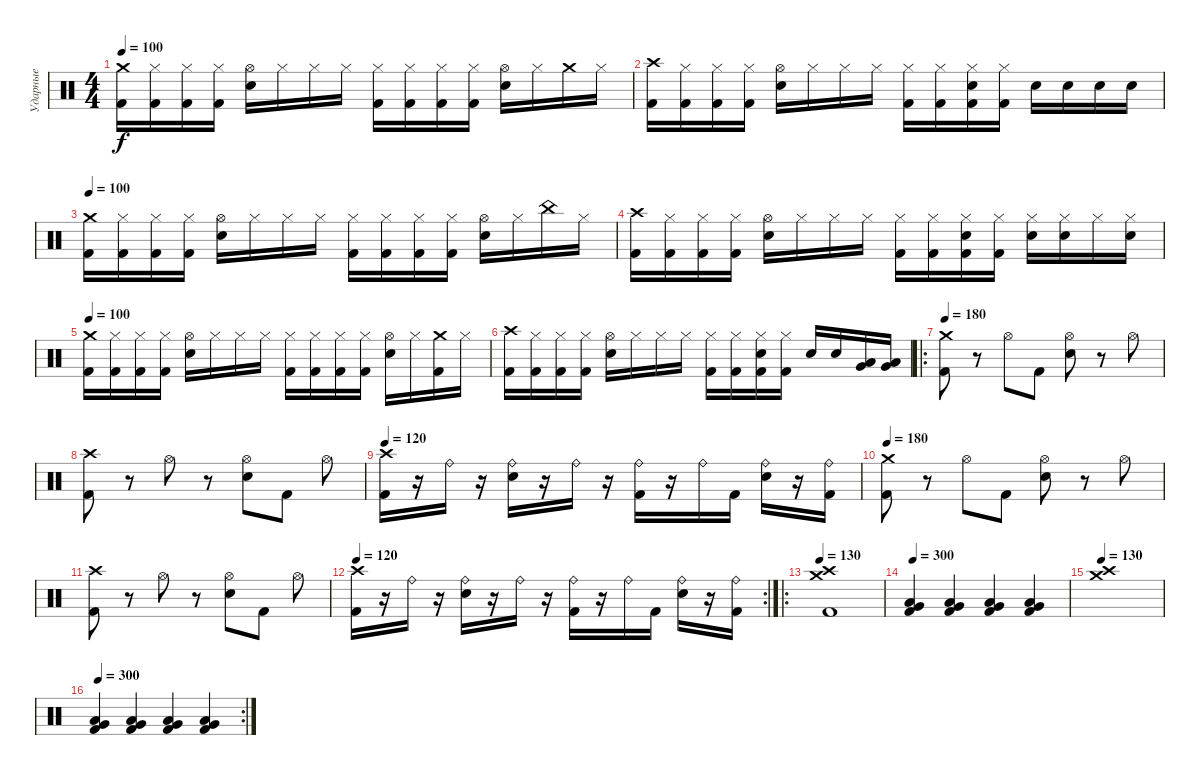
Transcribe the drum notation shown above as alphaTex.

\track ("Ударные" "Ударные") {instrument percussion}
\staff {score}
\articulation defaults
\ts (4 4)
\tempo 100
\clef neutral
\ks c
("Crash medium (hit)" "Kick (hit) 2").16{dy f} ("Hi-Hat (closed)" "Kick (hit) 2").16 ("Hi-Hat (closed)" "Kick (hit) 2").16 ("Hi-Hat (closed)" "Kick (hit) 2").16 ("Hi-Hat (open)" "Snare (hit) 2").16 "Hi-Hat (closed)".16 "Hi-Hat (closed)".16 "Hi-Hat (closed)".16 ("Hi-Hat (closed)" "Kick (hit) 2").16 ("Hi-Hat (closed)" "Kick (hit) 2").16 ("Hi-Hat (closed)" "Kick (hit) 2").16 ("Hi-Hat (closed)" "Kick (hit) 2").16 ("Hi-Hat (open)" "Snare (hit) 2").16 "Hi-Hat (closed)".16 "Crash medium (hit)".16 "Hi-Hat (closed)".16 |
("Crash high (hit)" "Kick (hit) 2").16 ("Hi-Hat (closed)" "Kick (hit) 2").16 ("Hi-Hat (closed)" "Kick (hit) 2").16 ("Hi-Hat (closed)" "Kick (hit) 2").16 ("Hi-Hat (open)" "Snare (hit) 2").16 "Hi-Hat (closed)".16 "Hi-Hat (closed)".16 "Hi-Hat (closed)".16 ("Hi-Hat (closed)" "Kick (hit) 2").16 ("Hi-Hat (closed)" "Kick (hit) 2").16 ("Hi-Hat (closed)" "Snare (hit) 2" "Kick (hit) 2").16 ("Hi-Hat (closed)" "Kick (hit) 2").16 "Snare (hit) 2".16 "Snare (hit) 2".16 "Snare (hit) 2".16 "Snare (hit) 2".16 |
\tempo 100
("Crash medium (hit)" "Kick (hit) 2").16 ("Hi-Hat (closed)" "Kick (hit) 2").16 ("Hi-Hat (closed)" "Kick (hit) 2").16 ("Hi-Hat (closed)" "Kick (hit) 2").16 ("Hi-Hat (open)" "Snare (hit) 2").16 "Hi-Hat (closed)".16 "Hi-Hat (closed)".16 "Hi-Hat (closed)".16 ("Hi-Hat (closed)" "Kick (hit) 2").16 ("Hi-Hat (closed)" "Kick (hit) 2").16 ("Hi-Hat (closed)" "Kick (hit) 2").16 ("Hi-Hat (closed)" "Kick (hit) 2").16 ("Hi-Hat (open)" "Snare (hit) 2").16 "Hi-Hat (closed)".16 "China (hit)".16 "Hi-Hat (closed)".16 |
("Crash high (hit)" "Kick (hit) 2").16 ("Hi-Hat (closed)" "Kick (hit) 2").16 ("Hi-Hat (closed)" "Kick (hit) 2").16 ("Hi-Hat (closed)" "Kick (hit) 2").16 ("Hi-Hat (open)" "Snare (hit) 2").16 "Hi-Hat (closed)".16 "Hi-Hat (closed)".16 "Hi-Hat (closed)".16 ("Hi-Hat (closed)" "Kick (hit) 2").16 ("Hi-Hat (closed)" "Kick (hit) 2").16 ("Hi-Hat (closed)" "Snare (hit) 2" "Kick (hit) 2").16 ("Hi-Hat (closed)" "Kick (hit) 2").16 ("Hi-Hat (closed)" "Snare (hit) 2").16 ("Hi-Hat (closed)" "Snare (hit) 2").16 "Hi-Hat (closed)".16 ("Hi-Hat (closed)" "Snare (hit) 2").16 |
\tempo 100
("Crash medium (hit)" "Kick (hit) 2").16 ("Hi-Hat (closed)" "Kick (hit) 2").16 ("Hi-Hat (closed)" "Kick (hit) 2").16 ("Hi-Hat (closed)" "Kick (hit) 2").16 ("Hi-Hat (open)" "Snare (hit) 2").16 "Hi-Hat (closed)".16 "Hi-Hat (closed)".16 "Hi-Hat (closed)".16 ("Hi-Hat (closed)" "Kick (hit) 2").16 ("Hi-Hat (closed)" "Kick (hit) 2").16 ("Hi-Hat (closed)" "Kick (hit) 2").16 ("Hi-Hat (closed)" "Kick (hit) 2").16 ("Hi-Hat (open)" "Snare (hit) 2").16 "Hi-Hat (closed)".16 ("Crash medium (hit)" "Kick (hit) 2").16 "Hi-Hat (closed)".16 |
("Crash high (hit)" "Kick (hit) 2").16 ("Hi-Hat (closed)" "Kick (hit) 2").16 ("Hi-Hat (closed)" "Kick (hit) 2").16 ("Hi-Hat (closed)" "Kick (hit) 2").16 ("Hi-Hat (open)" "Snare (hit) 2").16 "Hi-Hat (closed)".16 "Hi-Hat (closed)".16 "Hi-Hat (closed)".16 ("Hi-Hat (closed)" "Kick (hit) 2").16 ("Hi-Hat (closed)" "Kick (hit) 2").16 ("Hi-Hat (closed)" "Snare (hit) 2" "Kick (hit) 2").16 ("Hi-Hat (closed)" "Kick (hit) 2").16 "Snare (hit) 2".16 "Snare (hit) 2".16 ("Low Tom (hit)" "Very Low Tom (hit)").16 ("Low Tom (hit)" "Very Low Tom (hit)").16 |
\ro
\tempo 180
("Crash medium (hit)" "Kick (hit) 2").8 r.8 "Hi-Hat (open)".8 "Kick (hit) 2".8 ("Hi-Hat (open)" "Electric Snare (hit)").8 r.8 "Hi-Hat (open)".8 |
("Crash high (hit)" "Kick (hit) 2").8 r.8 "Hi-Hat (open)".8 r.8 ("Hi-Hat (open)" "Electric Snare (hit)").8 "Kick (hit) 2".8 "Hi-Hat (open)".8 |
\tempo 120
("Crash high (hit)" "Kick (hit) 2").16 r.16 "Ride (bell)".16 r.16 ("Ride (bell)" "Snare (hit) 2").16 r.16 "Ride (bell)".16 r.16 ("Ride (bell)" "Kick (hit) 2").16 r.16 "Ride (bell)".16 "Kick (hit) 2".16 ("Ride (bell)" "Snare (hit) 2").16 r.16 ("Ride (bell)" "Kick (hit) 2").16 |
\tempo 180
("Crash medium (hit)" "Kick (hit) 2").8 r.8 "Hi-Hat (open)".8 "Kick (hit) 2".8 ("Hi-Hat (open)" "Electric Snare (hit)").8 r.8 "Hi-Hat (open)".8 |
("Crash high (hit)" "Kick (hit) 2").8 r.8 "Hi-Hat (open)".8 r.8 ("Hi-Hat (open)" "Electric Snare (hit)").8 "Kick (hit) 2".8 "Hi-Hat (open)".8 |
\rc 2
\tempo 120
("Crash high (hit)" "Kick (hit) 2").16 r.16 "Ride (bell)".16 r.16 ("Ride (bell)" "Snare (hit) 2").16 r.16 "Ride (bell)".16 r.16 ("Ride (bell)" "Kick (hit) 2").16 r.16 "Ride (bell)".16 "Kick (hit) 2".16 ("Ride (bell)" "Snare (hit) 2").16 r.16 ("Ride (bell)" "Kick (hit) 2").16 |
\ro
\tempo 130
("Crash medium (hit)" "Crash high (hit)" "Kick (hit) 2").1 |
\tempo 300
("Low Tom (hit)" "Very Low Tom (hit)" "Kick (hit) 2").4 ("Low Tom (hit)" "Very Low Tom (hit)" "Kick (hit) 2").4 ("Low Tom (hit)" "Very Low Tom (hit)" "Kick (hit) 2").4 ("Low Tom (hit)" "Very Low Tom (hit)" "Kick (hit) 2").4 |
\tempo 130
("Crash medium (hit)" "Crash high (hit)").1 |
\rc 2
\tempo 300
("Low Tom (hit)" "Very Low Tom (hit)" "Kick (hit) 2").4 ("Low Tom (hit)" "Very Low Tom (hit)" "Kick (hit) 2").4 ("Low Tom (hit)" "Very Low Tom (hit)" "Kick (hit) 2").4 ("Low Tom (hit)" "Very Low Tom (hit)" "Kick (hit) 2").4
